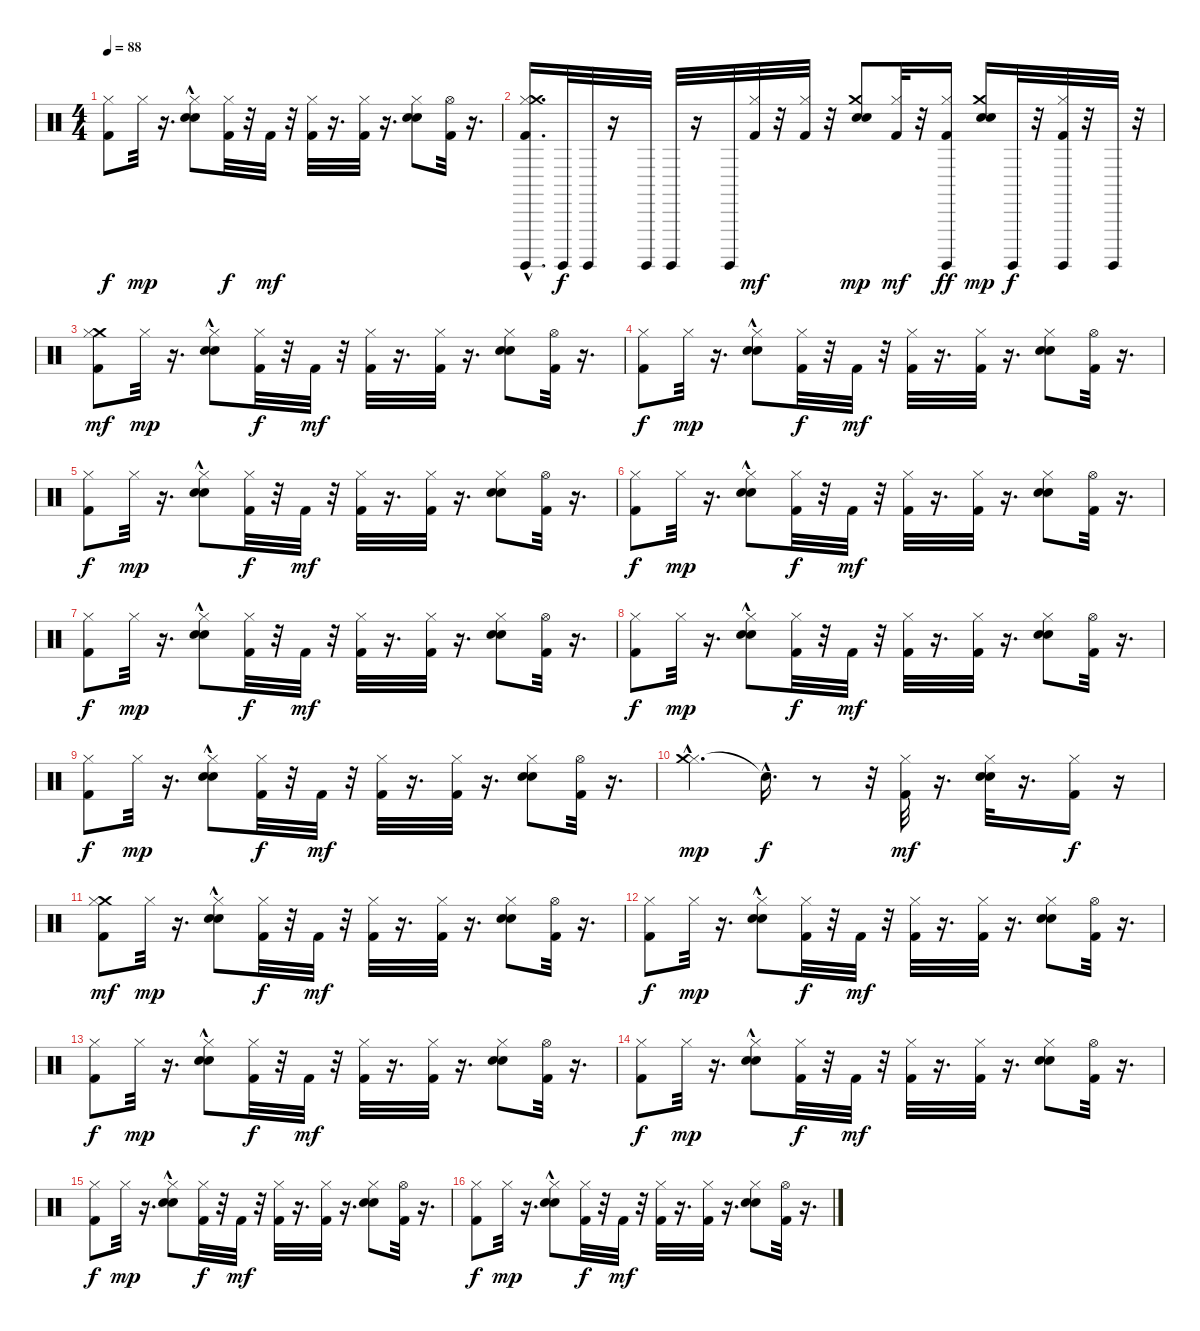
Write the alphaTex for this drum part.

\track "" {instrument percussion}
\staff {score}
\articulation defaults
\ts (4 4)
\tempo 88
\clef neutral
\ks c
("Hi-Hat (closed)" "Kick (hit) 2").8{dy f} "Hi-Hat (closed)".32{dy mp} r.16{d} ("Hi-Hat (closed)" "Hand Clap (hit)" "Electric Snare (hit)"{hac}).8 ("Kick (hit) 2" "Hi-Hat (closed)").32{dy f} r.32 "Kick (hit) 2".32{dy mf} r.32 ("Kick (hit) 2" "Hi-Hat (closed)").32 r.16{d} ("Kick (hit) 2" "Hi-Hat (closed)").32 r.16{d} ("Electric Snare (hit)" "Hi-Hat (closed)" "Hand Clap (hit)").8 ("Hi-Hat (open)" "Kick (hit) 2").32 r.16{d} |
("Surdo (hit)" "Hi-Hat (closed)"{hac} "Crash medium (hit)" "Kick (hit) 2").16{d} "Surdo (hit)".32{dy f} "Surdo (hit)".32 r.16 "Surdo (hit)".32 "Surdo (hit)".32 r.16 "Surdo (hit)".32 ("Hi-Hat (closed)" "Kick (hit) 2").32{dy mf} r.32 ("Hi-Hat (closed)" "Kick (hit) 2").32 r.32 ("Hand Clap (hit)" "Crash medium (hit)" "Electric Snare (hit)").8{dy mp} ("Hi-Hat (closed)" "Kick (hit) 2").32{dy mf} r.32 ("Hi-Hat (closed)" "Kick (hit) 2" "Surdo (hit)").16{dy ff} ("Hand Clap (hit)" "Crash medium (hit)" "Electric Snare (hit)").16{dy mp} "Surdo (hit)".32{dy f} r.32 ("Surdo (hit)" "Hi-Hat (closed)" "Kick (hit) 2").32 r.32 "Surdo (hit)".32 r.32 |
("Crash medium (hit)" "Hi-Hat (closed)" "Kick (hit) 2").8{dy mf} "Hi-Hat (closed)".32{dy mp} r.16{d} ("Hi-Hat (closed)" "Hand Clap (hit)" "Electric Snare (hit)"{hac}).8 ("Hi-Hat (closed)" "Kick (hit) 2").32{dy f} r.32 "Kick (hit) 2".32{dy mf} r.32 ("Kick (hit) 2" "Hi-Hat (closed)").32 r.16{d} ("Hi-Hat (closed)" "Kick (hit) 2").32 r.16{d} ("Electric Snare (hit)" "Hi-Hat (closed)" "Hand Clap (hit)").8 ("Hi-Hat (open)" "Kick (hit) 2").32 r.16{d} |
("Hi-Hat (closed)" "Kick (hit) 2").8{dy f} "Hi-Hat (closed)".32{dy mp} r.16{d} ("Hi-Hat (closed)" "Hand Clap (hit)" "Electric Snare (hit)"{hac}).8 ("Kick (hit) 2" "Hi-Hat (closed)").32{dy f} r.32 "Kick (hit) 2".32{dy mf} r.32 ("Kick (hit) 2" "Hi-Hat (closed)").32 r.16{d} ("Kick (hit) 2" "Hi-Hat (closed)").32 r.16{d} ("Electric Snare (hit)" "Hi-Hat (closed)" "Hand Clap (hit)").8 ("Hi-Hat (open)" "Kick (hit) 2").32 r.16{d} |
("Hi-Hat (closed)" "Kick (hit) 2").8{dy f} "Hi-Hat (closed)".32{dy mp} r.16{d} ("Hi-Hat (closed)" "Hand Clap (hit)" "Electric Snare (hit)"{hac}).8 ("Hi-Hat (closed)" "Kick (hit) 2").32{dy f} r.32 "Kick (hit) 2".32{dy mf} r.32 ("Kick (hit) 2" "Hi-Hat (closed)").32 r.16{d} ("Hi-Hat (closed)" "Kick (hit) 2").32 r.16{d} ("Electric Snare (hit)" "Hi-Hat (closed)" "Hand Clap (hit)").8 ("Hi-Hat (open)" "Kick (hit) 2").32 r.16{d} |
("Hi-Hat (closed)" "Kick (hit) 2").8{dy f} "Hi-Hat (closed)".32{dy mp} r.16{d} ("Hi-Hat (closed)" "Hand Clap (hit)" "Electric Snare (hit)"{hac}).8 ("Kick (hit) 2" "Hi-Hat (closed)").32{dy f} r.32 "Kick (hit) 2".32{dy mf} r.32 ("Kick (hit) 2" "Hi-Hat (closed)").32 r.16{d} ("Kick (hit) 2" "Hi-Hat (closed)").32 r.16{d} ("Electric Snare (hit)" "Hi-Hat (closed)" "Hand Clap (hit)").8 ("Hi-Hat (open)" "Kick (hit) 2").32 r.16{d} |
("Hi-Hat (closed)" "Kick (hit) 2").8{dy f} "Hi-Hat (closed)".32{dy mp} r.16{d} ("Hi-Hat (closed)" "Hand Clap (hit)" "Electric Snare (hit)"{hac}).8 ("Hi-Hat (closed)" "Kick (hit) 2").32{dy f} r.32 "Kick (hit) 2".32{dy mf} r.32 ("Kick (hit) 2" "Hi-Hat (closed)").32 r.16{d} ("Hi-Hat (closed)" "Kick (hit) 2").32 r.16{d} ("Electric Snare (hit)" "Hi-Hat (closed)" "Hand Clap (hit)").8 ("Hi-Hat (open)" "Kick (hit) 2").32 r.16{d} |
("Hi-Hat (closed)" "Kick (hit) 2").8{dy f} "Hi-Hat (closed)".32{dy mp} r.16{d} ("Hi-Hat (closed)" "Hand Clap (hit)" "Electric Snare (hit)"{hac}).8 ("Kick (hit) 2" "Hi-Hat (closed)").32{dy f} r.32 "Kick (hit) 2".32{dy mf} r.32 ("Kick (hit) 2" "Hi-Hat (closed)").32 r.16{d} ("Kick (hit) 2" "Hi-Hat (closed)").32 r.16{d} ("Electric Snare (hit)" "Hi-Hat (closed)" "Hand Clap (hit)").8 ("Hi-Hat (open)" "Kick (hit) 2").32 r.16{d} |
("Hi-Hat (closed)" "Kick (hit) 2").8{dy f} "Hi-Hat (closed)".32{dy mp} r.16{d} ("Hi-Hat (closed)" "Hand Clap (hit)" "Electric Snare (hit)"{hac}).8 ("Hi-Hat (closed)" "Kick (hit) 2").32{dy f} r.32 "Kick (hit) 2".32{dy mf} r.32 ("Kick (hit) 2" "Hi-Hat (closed)").32 r.16{d} ("Hi-Hat (closed)" "Kick (hit) 2").32 r.16{d} ("Electric Snare (hit)" "Hi-Hat (closed)" "Hand Clap (hit)").8 ("Hi-Hat (open)" "Kick (hit) 2").32 r.16{d} |
("Hi-Hat (closed)" "Crash medium (hit)"{hac}).4{d dy mp} "Snare (hit)"{hac t}.16{d dy f} r.8 r.32 ("Kick (hit) 2" "Hi-Hat (closed)").32{dy mf} r.16{d} ("Hand Clap (hit)" "Electric Snare (hit)" "Hi-Hat (closed)").32 r.16{d} ("Kick (hit) 2" "Hi-Hat (closed)").16{dy f} r.16 |
("Crash medium (hit)" "Hi-Hat (closed)" "Kick (hit) 2").8{dy mf} "Hi-Hat (closed)".32{dy mp} r.16{d} ("Hi-Hat (closed)" "Hand Clap (hit)" "Electric Snare (hit)"{hac}).8 ("Hi-Hat (closed)" "Kick (hit) 2").32{dy f} r.32 "Kick (hit) 2".32{dy mf} r.32 ("Kick (hit) 2" "Hi-Hat (closed)").32 r.16{d} ("Hi-Hat (closed)" "Kick (hit) 2").32 r.16{d} ("Electric Snare (hit)" "Hi-Hat (closed)" "Hand Clap (hit)").8 ("Hi-Hat (open)" "Kick (hit) 2").32 r.16{d} |
("Hi-Hat (closed)" "Kick (hit) 2").8{dy f} "Hi-Hat (closed)".32{dy mp} r.16{d} ("Hi-Hat (closed)" "Hand Clap (hit)" "Electric Snare (hit)"{hac}).8 ("Kick (hit) 2" "Hi-Hat (closed)").32{dy f} r.32 "Kick (hit) 2".32{dy mf} r.32 ("Kick (hit) 2" "Hi-Hat (closed)").32 r.16{d} ("Kick (hit) 2" "Hi-Hat (closed)").32 r.16{d} ("Electric Snare (hit)" "Hi-Hat (closed)" "Hand Clap (hit)").8 ("Hi-Hat (open)" "Kick (hit) 2").32 r.16{d} |
("Hi-Hat (closed)" "Kick (hit) 2").8{dy f} "Hi-Hat (closed)".32{dy mp} r.16{d} ("Hi-Hat (closed)" "Hand Clap (hit)" "Electric Snare (hit)"{hac}).8 ("Hi-Hat (closed)" "Kick (hit) 2").32{dy f} r.32 "Kick (hit) 2".32{dy mf} r.32 ("Kick (hit) 2" "Hi-Hat (closed)").32 r.16{d} ("Hi-Hat (closed)" "Kick (hit) 2").32 r.16{d} ("Electric Snare (hit)" "Hi-Hat (closed)" "Hand Clap (hit)").8 ("Hi-Hat (open)" "Kick (hit) 2").32 r.16{d} |
("Hi-Hat (closed)" "Kick (hit) 2").8{dy f} "Hi-Hat (closed)".32{dy mp} r.16{d} ("Hi-Hat (closed)" "Hand Clap (hit)" "Electric Snare (hit)"{hac}).8 ("Kick (hit) 2" "Hi-Hat (closed)").32{dy f} r.32 "Kick (hit) 2".32{dy mf} r.32 ("Kick (hit) 2" "Hi-Hat (closed)").32 r.16{d} ("Kick (hit) 2" "Hi-Hat (closed)").32 r.16{d} ("Electric Snare (hit)" "Hi-Hat (closed)" "Hand Clap (hit)").8 ("Hi-Hat (open)" "Kick (hit) 2").32 r.16{d} |
("Hi-Hat (closed)" "Kick (hit) 2").8{dy f} "Hi-Hat (closed)".32{dy mp} r.16{d} ("Hi-Hat (closed)" "Hand Clap (hit)" "Electric Snare (hit)"{hac}).8 ("Hi-Hat (closed)" "Kick (hit) 2").32{dy f} r.32 "Kick (hit) 2".32{dy mf} r.32 ("Kick (hit) 2" "Hi-Hat (closed)").32 r.16{d} ("Hi-Hat (closed)" "Kick (hit) 2").32 r.16{d} ("Electric Snare (hit)" "Hi-Hat (closed)" "Hand Clap (hit)").8 ("Hi-Hat (open)" "Kick (hit) 2").32 r.16{d} |
("Hi-Hat (closed)" "Kick (hit) 2").8{dy f} "Hi-Hat (closed)".32{dy mp} r.16{d} ("Hi-Hat (closed)" "Hand Clap (hit)" "Electric Snare (hit)"{hac}).8 ("Kick (hit) 2" "Hi-Hat (closed)").32{dy f} r.32 "Kick (hit) 2".32{dy mf} r.32 ("Kick (hit) 2" "Hi-Hat (closed)").32 r.16{d} ("Kick (hit) 2" "Hi-Hat (closed)").32 r.16{d} ("Electric Snare (hit)" "Hi-Hat (closed)" "Hand Clap (hit)").8 ("Hi-Hat (open)" "Kick (hit) 2").32 r.16{d}
